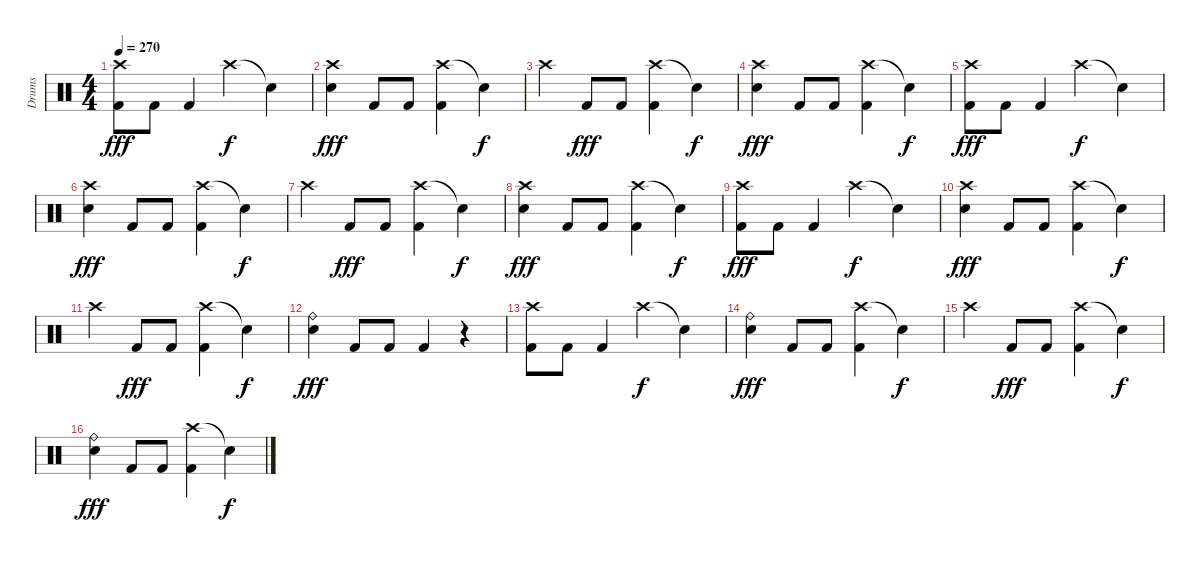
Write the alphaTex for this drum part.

\track ("Drums" "Drums") {instrument percussion}
\staff {score}
\articulation defaults
\ts (4 4)
\tempo 270
\clef neutral
\ks c
("Crash high (hit)" "Kick (hit) 2").8{dy fff} "Kick (hit) 2".8 "Kick (hit) 2".4 "Crash high (hit)".4{dy f} "Snare (hit)"{t}.4 |
("Crash high (hit)" "Snare (hit) 2").4{dy fff} "Kick (hit) 2".8 "Kick (hit) 2".8 ("Crash high (hit)" "Kick (hit) 2").4 "Snare (hit)"{t}.4{dy f} |
"Crash high (hit)".4 "Kick (hit) 2".8{dy fff} "Kick (hit) 2".8 ("Crash high (hit)" "Kick (hit) 2").4 "Snare (hit)"{t}.4{dy f} |
("Crash high (hit)" "Snare (hit) 2").4{dy fff} "Kick (hit) 2".8 "Kick (hit) 2".8 ("Crash high (hit)" "Kick (hit) 2").4 "Snare (hit)"{t}.4{dy f} |
("Crash high (hit)" "Kick (hit) 2").8{dy fff} "Kick (hit) 2".8 "Kick (hit) 2".4 "Crash high (hit)".4{dy f} "Snare (hit)"{t}.4 |
("Crash high (hit)" "Snare (hit) 2").4{dy fff} "Kick (hit) 2".8 "Kick (hit) 2".8 ("Crash high (hit)" "Kick (hit) 2").4 "Snare (hit)"{t}.4{dy f} |
"Crash high (hit)".4 "Kick (hit) 2".8{dy fff} "Kick (hit) 2".8 ("Crash high (hit)" "Kick (hit) 2").4 "Snare (hit)"{t}.4{dy f} |
("Crash high (hit)" "Snare (hit) 2").4{dy fff} "Kick (hit) 2".8 "Kick (hit) 2".8 ("Crash high (hit)" "Kick (hit) 2").4 "Snare (hit)"{t}.4{dy f} |
("Crash high (hit)" "Kick (hit) 2").8{dy fff} "Kick (hit) 2".8 "Kick (hit) 2".4 "Crash high (hit)".4{dy f} "Snare (hit)"{t}.4 |
("Crash high (hit)" "Snare (hit) 2").4{dy fff} "Kick (hit) 2".8 "Kick (hit) 2".8 ("Crash high (hit)" "Kick (hit) 2").4 "Snare (hit)"{t}.4{dy f} |
"Crash high (hit)".4 "Kick (hit) 2".8{dy fff} "Kick (hit) 2".8 ("Crash high (hit)" "Kick (hit) 2").4 "Snare (hit)"{t}.4{dy f} |
("Ride (bell)" "Snare (hit) 2").4{dy fff} "Kick (hit) 2".8 "Kick (hit) 2".8 "Kick (hit) 2".4 r.4 |
("Crash high (hit)" "Kick (hit) 2").8 "Kick (hit) 2".8 "Kick (hit) 2".4 "Crash high (hit)".4{dy f} "Snare (hit)"{t}.4 |
("Ride (bell)" "Snare (hit) 2").4{dy fff} "Kick (hit) 2".8 "Kick (hit) 2".8 ("Crash high (hit)" "Kick (hit) 2").4 "Snare (hit)"{t}.4{dy f} |
"Crash high (hit)".4 "Kick (hit) 2".8{dy fff} "Kick (hit) 2".8 ("Crash high (hit)" "Kick (hit) 2").4 "Snare (hit)"{t}.4{dy f} |
("Ride (bell)" "Snare (hit) 2").4{dy fff} "Kick (hit) 2".8 "Kick (hit) 2".8 ("Crash high (hit)" "Kick (hit) 2").4 "Snare (hit)"{t}.4{dy f}
